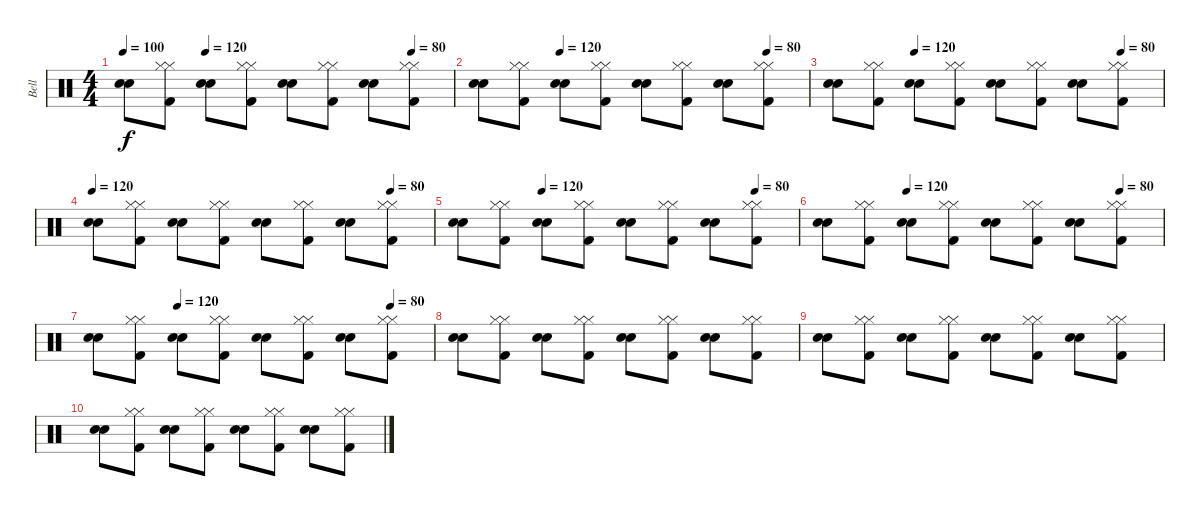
\track ("Bell" "Bell") {instrument percussion}
\staff {score}
\articulation defaults
\ts (4 4)
\tempo 100
\tempo (120 0.25)
\tempo (80 0.875)
\clef neutral
\ks c
("Snare (hit) 2" "Snare (hit) 2").8{dy f} ("Hi-Hat (closed)" "Kick (hit) 2" "Hi-Hat (closed)").8 ("Snare (hit) 2" "Snare (hit) 2").8 ("Hi-Hat (closed)" "Kick (hit) 2" "Hi-Hat (closed)").8 ("Snare (hit) 2" "Snare (hit) 2").8 ("Hi-Hat (closed)" "Kick (hit) 2" "Hi-Hat (closed)").8 ("Snare (hit) 2" "Snare (hit) 2").8 ("Hi-Hat (closed)" "Kick (hit) 2" "Hi-Hat (closed)").8 |
\tempo (120 0.25)
\tempo (80 0.875)
("Snare (hit) 2" "Snare (hit) 2").8 ("Hi-Hat (closed)" "Kick (hit) 2" "Hi-Hat (closed)").8 ("Snare (hit) 2" "Snare (hit) 2").8 ("Hi-Hat (closed)" "Kick (hit) 2" "Hi-Hat (closed)").8 ("Snare (hit) 2" "Snare (hit) 2").8 ("Hi-Hat (closed)" "Kick (hit) 2" "Hi-Hat (closed)").8 ("Snare (hit) 2" "Snare (hit) 2").8 ("Hi-Hat (closed)" "Kick (hit) 2" "Hi-Hat (closed)").8 |
\tempo (120 0.25)
\tempo (80 0.875)
("Snare (hit) 2" "Snare (hit) 2").8 ("Hi-Hat (closed)" "Kick (hit) 2" "Hi-Hat (closed)").8 ("Snare (hit) 2" "Snare (hit) 2").8 ("Hi-Hat (closed)" "Kick (hit) 2" "Hi-Hat (closed)").8 ("Snare (hit) 2" "Snare (hit) 2").8 ("Hi-Hat (closed)" "Kick (hit) 2" "Hi-Hat (closed)").8 ("Snare (hit) 2" "Snare (hit) 2").8 ("Hi-Hat (closed)" "Kick (hit) 2" "Hi-Hat (closed)").8 |
\tempo 120
\tempo (80 0.875)
("Snare (hit) 2" "Snare (hit) 2").8 ("Hi-Hat (closed)" "Kick (hit) 2" "Hi-Hat (closed)").8 ("Snare (hit) 2" "Snare (hit) 2").8 ("Hi-Hat (closed)" "Kick (hit) 2" "Hi-Hat (closed)").8 ("Snare (hit) 2" "Snare (hit) 2").8 ("Hi-Hat (closed)" "Kick (hit) 2" "Hi-Hat (closed)").8 ("Snare (hit) 2" "Snare (hit) 2").8 ("Hi-Hat (closed)" "Kick (hit) 2" "Hi-Hat (closed)").8 |
\tempo (120 0.25)
\tempo (80 0.875)
("Snare (hit) 2" "Snare (hit) 2").8 ("Hi-Hat (closed)" "Kick (hit) 2" "Hi-Hat (closed)").8 ("Snare (hit) 2" "Snare (hit) 2").8 ("Hi-Hat (closed)" "Kick (hit) 2" "Hi-Hat (closed)").8 ("Snare (hit) 2" "Snare (hit) 2").8 ("Hi-Hat (closed)" "Kick (hit) 2" "Hi-Hat (closed)").8 ("Snare (hit) 2" "Snare (hit) 2").8 ("Hi-Hat (closed)" "Kick (hit) 2" "Hi-Hat (closed)").8 |
\tempo (120 0.25)
\tempo (80 0.875)
("Snare (hit) 2" "Snare (hit) 2").8 ("Hi-Hat (closed)" "Kick (hit) 2" "Hi-Hat (closed)").8 ("Snare (hit) 2" "Snare (hit) 2").8 ("Hi-Hat (closed)" "Kick (hit) 2" "Hi-Hat (closed)").8 ("Snare (hit) 2" "Snare (hit) 2").8 ("Hi-Hat (closed)" "Kick (hit) 2" "Hi-Hat (closed)").8 ("Snare (hit) 2" "Snare (hit) 2").8 ("Hi-Hat (closed)" "Kick (hit) 2" "Hi-Hat (closed)").8 |
\tempo (120 0.25)
\tempo (80 0.875)
("Snare (hit) 2" "Snare (hit) 2").8 ("Hi-Hat (closed)" "Kick (hit) 2" "Hi-Hat (closed)").8 ("Snare (hit) 2" "Snare (hit) 2").8 ("Hi-Hat (closed)" "Kick (hit) 2" "Hi-Hat (closed)").8 ("Snare (hit) 2" "Snare (hit) 2").8 ("Hi-Hat (closed)" "Kick (hit) 2" "Hi-Hat (closed)").8 ("Snare (hit) 2" "Snare (hit) 2").8 ("Hi-Hat (closed)" "Kick (hit) 2" "Hi-Hat (closed)").8 |
("Snare (hit) 2" "Snare (hit) 2").8 ("Hi-Hat (closed)" "Kick (hit) 2" "Hi-Hat (closed)").8 ("Snare (hit) 2" "Snare (hit) 2").8 ("Hi-Hat (closed)" "Kick (hit) 2" "Hi-Hat (closed)").8 ("Snare (hit) 2" "Snare (hit) 2").8 ("Hi-Hat (closed)" "Kick (hit) 2" "Hi-Hat (closed)").8 ("Snare (hit) 2" "Snare (hit) 2").8 ("Hi-Hat (closed)" "Kick (hit) 2" "Hi-Hat (closed)").8 |
("Snare (hit) 2" "Snare (hit) 2").8 ("Hi-Hat (closed)" "Kick (hit) 2" "Hi-Hat (closed)").8 ("Snare (hit) 2" "Snare (hit) 2").8 ("Hi-Hat (closed)" "Kick (hit) 2" "Hi-Hat (closed)").8 ("Snare (hit) 2" "Snare (hit) 2").8 ("Hi-Hat (closed)" "Kick (hit) 2" "Hi-Hat (closed)").8 ("Snare (hit) 2" "Snare (hit) 2").8 ("Hi-Hat (closed)" "Kick (hit) 2" "Hi-Hat (closed)").8 |
("Snare (hit) 2" "Snare (hit) 2").8 ("Hi-Hat (closed)" "Kick (hit) 2" "Hi-Hat (closed)").8 ("Snare (hit) 2" "Snare (hit) 2").8 ("Hi-Hat (closed)" "Kick (hit) 2" "Hi-Hat (closed)").8 ("Snare (hit) 2" "Snare (hit) 2").8 ("Hi-Hat (closed)" "Kick (hit) 2" "Hi-Hat (closed)").8 ("Snare (hit) 2" "Snare (hit) 2").8 ("Hi-Hat (closed)" "Kick (hit) 2" "Hi-Hat (closed)").8
